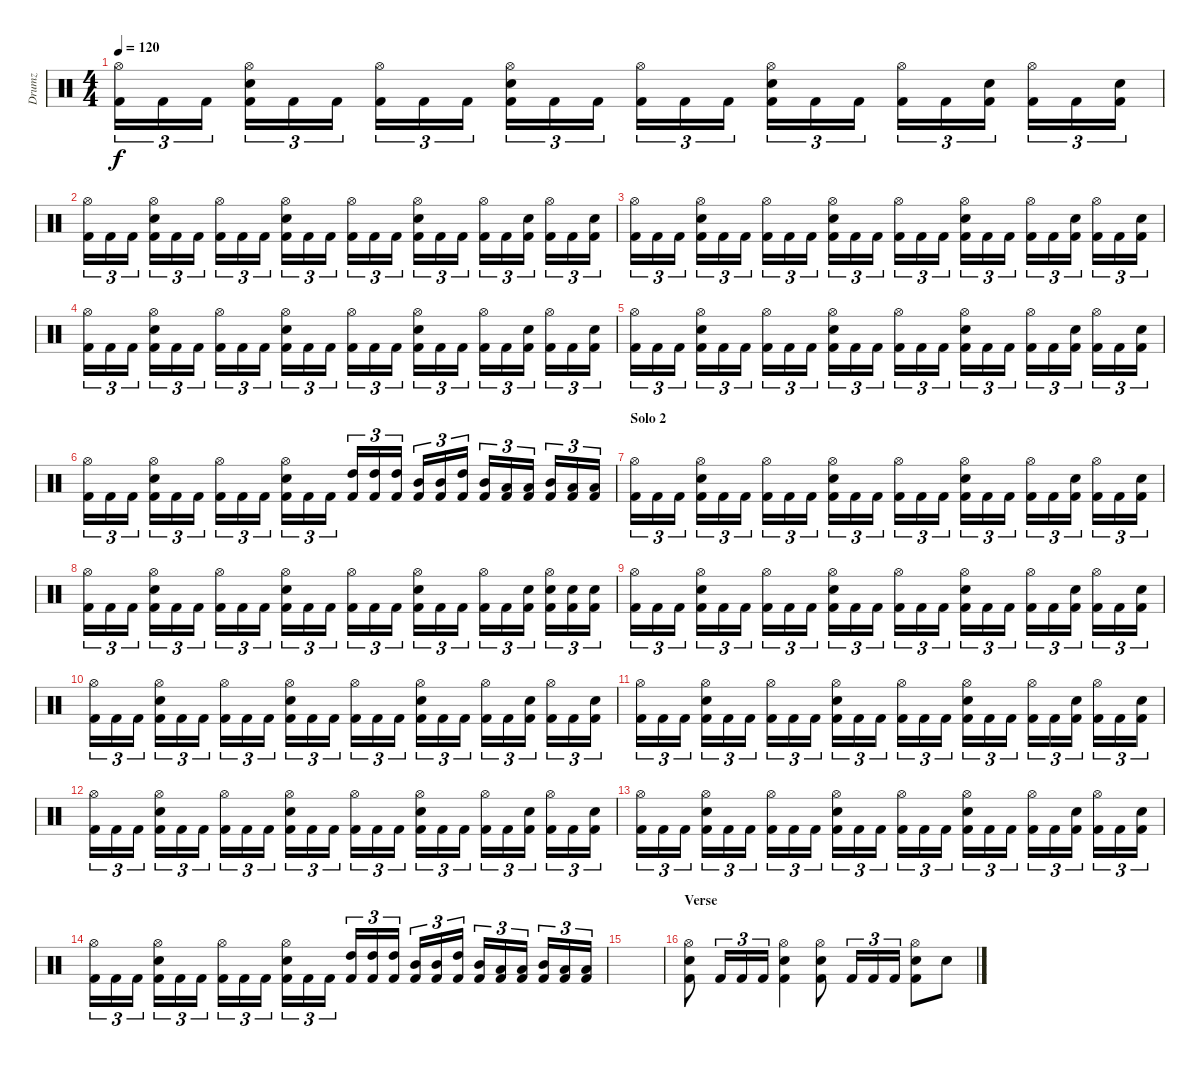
\track ("Drumz" "Drumz") {instrument percussion}
\staff {score}
\articulation defaults
\ts (4 4)
\tempo 120
\clef neutral
\ks c
("Hi-Hat (open)" "Kick (hit) 2").16{tu (3 2) dy f} "Kick (hit) 2".16{tu (3 2)} "Kick (hit) 2".16{tu (3 2)} ("Hi-Hat (open)" "Snare (hit) 2" "Kick (hit) 2").16{tu (3 2)} "Kick (hit) 2".16{tu (3 2)} "Kick (hit) 2".16{tu (3 2)} ("Hi-Hat (open)" "Kick (hit) 2").16{tu (3 2)} "Kick (hit) 2".16{tu (3 2)} "Kick (hit) 2".16{tu (3 2)} ("Hi-Hat (open)" "Snare (hit) 2" "Kick (hit) 2").16{tu (3 2)} "Kick (hit) 2".16{tu (3 2)} "Kick (hit) 2".16{tu (3 2)} ("Hi-Hat (open)" "Kick (hit) 2").16{tu (3 2)} "Kick (hit) 2".16{tu (3 2)} "Kick (hit) 2".16{tu (3 2)} ("Hi-Hat (open)" "Snare (hit) 2" "Kick (hit) 2").16{tu (3 2)} "Kick (hit) 2".16{tu (3 2)} "Kick (hit) 2".16{tu (3 2)} ("Hi-Hat (open)" "Kick (hit) 2").16{tu (3 2)} "Kick (hit) 2".16{tu (3 2)} ("Snare (hit) 2" "Kick (hit) 2").16{tu (3 2)} ("Hi-Hat (open)" "Kick (hit) 2").16{tu (3 2)} "Kick (hit) 2".16{tu (3 2)} ("Snare (hit) 2" "Kick (hit) 2").16{tu (3 2)} |
("Hi-Hat (open)" "Kick (hit) 2").16{tu (3 2)} "Kick (hit) 2".16{tu (3 2)} "Kick (hit) 2".16{tu (3 2)} ("Hi-Hat (open)" "Snare (hit) 2" "Kick (hit) 2").16{tu (3 2)} "Kick (hit) 2".16{tu (3 2)} "Kick (hit) 2".16{tu (3 2)} ("Hi-Hat (open)" "Kick (hit) 2").16{tu (3 2)} "Kick (hit) 2".16{tu (3 2)} "Kick (hit) 2".16{tu (3 2)} ("Hi-Hat (open)" "Snare (hit) 2" "Kick (hit) 2").16{tu (3 2)} "Kick (hit) 2".16{tu (3 2)} "Kick (hit) 2".16{tu (3 2)} ("Hi-Hat (open)" "Kick (hit) 2").16{tu (3 2)} "Kick (hit) 2".16{tu (3 2)} "Kick (hit) 2".16{tu (3 2)} ("Hi-Hat (open)" "Snare (hit) 2" "Kick (hit) 2").16{tu (3 2)} "Kick (hit) 2".16{tu (3 2)} "Kick (hit) 2".16{tu (3 2)} ("Hi-Hat (open)" "Kick (hit) 2").16{tu (3 2)} "Kick (hit) 2".16{tu (3 2)} ("Snare (hit) 2" "Kick (hit) 2").16{tu (3 2)} ("Hi-Hat (open)" "Kick (hit) 2").16{tu (3 2)} "Kick (hit) 2".16{tu (3 2)} ("Snare (hit) 2" "Kick (hit) 2").16{tu (3 2)} |
("Hi-Hat (open)" "Kick (hit) 2").16{tu (3 2)} "Kick (hit) 2".16{tu (3 2)} "Kick (hit) 2".16{tu (3 2)} ("Hi-Hat (open)" "Snare (hit) 2" "Kick (hit) 2").16{tu (3 2)} "Kick (hit) 2".16{tu (3 2)} "Kick (hit) 2".16{tu (3 2)} ("Hi-Hat (open)" "Kick (hit) 2").16{tu (3 2)} "Kick (hit) 2".16{tu (3 2)} "Kick (hit) 2".16{tu (3 2)} ("Hi-Hat (open)" "Snare (hit) 2" "Kick (hit) 2").16{tu (3 2)} "Kick (hit) 2".16{tu (3 2)} "Kick (hit) 2".16{tu (3 2)} ("Hi-Hat (open)" "Kick (hit) 2").16{tu (3 2)} "Kick (hit) 2".16{tu (3 2)} "Kick (hit) 2".16{tu (3 2)} ("Hi-Hat (open)" "Snare (hit) 2" "Kick (hit) 2").16{tu (3 2)} "Kick (hit) 2".16{tu (3 2)} "Kick (hit) 2".16{tu (3 2)} ("Hi-Hat (open)" "Kick (hit) 2").16{tu (3 2)} "Kick (hit) 2".16{tu (3 2)} ("Snare (hit) 2" "Kick (hit) 2").16{tu (3 2)} ("Hi-Hat (open)" "Kick (hit) 2").16{tu (3 2)} "Kick (hit) 2".16{tu (3 2)} ("Snare (hit) 2" "Kick (hit) 2").16{tu (3 2)} |
("Hi-Hat (open)" "Kick (hit) 2").16{tu (3 2)} "Kick (hit) 2".16{tu (3 2)} "Kick (hit) 2".16{tu (3 2)} ("Hi-Hat (open)" "Snare (hit) 2" "Kick (hit) 2").16{tu (3 2)} "Kick (hit) 2".16{tu (3 2)} "Kick (hit) 2".16{tu (3 2)} ("Hi-Hat (open)" "Kick (hit) 2").16{tu (3 2)} "Kick (hit) 2".16{tu (3 2)} "Kick (hit) 2".16{tu (3 2)} ("Hi-Hat (open)" "Snare (hit) 2" "Kick (hit) 2").16{tu (3 2)} "Kick (hit) 2".16{tu (3 2)} "Kick (hit) 2".16{tu (3 2)} ("Hi-Hat (open)" "Kick (hit) 2").16{tu (3 2)} "Kick (hit) 2".16{tu (3 2)} "Kick (hit) 2".16{tu (3 2)} ("Hi-Hat (open)" "Snare (hit) 2" "Kick (hit) 2").16{tu (3 2)} "Kick (hit) 2".16{tu (3 2)} "Kick (hit) 2".16{tu (3 2)} ("Hi-Hat (open)" "Kick (hit) 2").16{tu (3 2)} "Kick (hit) 2".16{tu (3 2)} ("Snare (hit) 2" "Kick (hit) 2").16{tu (3 2)} ("Hi-Hat (open)" "Kick (hit) 2").16{tu (3 2)} "Kick (hit) 2".16{tu (3 2)} ("Snare (hit) 2" "Kick (hit) 2").16{tu (3 2)} |
("Hi-Hat (open)" "Kick (hit) 2").16{tu (3 2)} "Kick (hit) 2".16{tu (3 2)} "Kick (hit) 2".16{tu (3 2)} ("Hi-Hat (open)" "Snare (hit) 2" "Kick (hit) 2").16{tu (3 2)} "Kick (hit) 2".16{tu (3 2)} "Kick (hit) 2".16{tu (3 2)} ("Hi-Hat (open)" "Kick (hit) 2").16{tu (3 2)} "Kick (hit) 2".16{tu (3 2)} "Kick (hit) 2".16{tu (3 2)} ("Hi-Hat (open)" "Snare (hit) 2" "Kick (hit) 2").16{tu (3 2)} "Kick (hit) 2".16{tu (3 2)} "Kick (hit) 2".16{tu (3 2)} ("Hi-Hat (open)" "Kick (hit) 2").16{tu (3 2)} "Kick (hit) 2".16{tu (3 2)} "Kick (hit) 2".16{tu (3 2)} ("Hi-Hat (open)" "Snare (hit) 2" "Kick (hit) 2").16{tu (3 2)} "Kick (hit) 2".16{tu (3 2)} "Kick (hit) 2".16{tu (3 2)} ("Hi-Hat (open)" "Kick (hit) 2").16{tu (3 2)} "Kick (hit) 2".16{tu (3 2)} ("Snare (hit) 2" "Kick (hit) 2").16{tu (3 2)} ("Hi-Hat (open)" "Kick (hit) 2").16{tu (3 2)} "Kick (hit) 2".16{tu (3 2)} ("Snare (hit) 2" "Kick (hit) 2").16{tu (3 2)} |
("Hi-Hat (open)" "Kick (hit) 2").16{tu (3 2)} "Kick (hit) 2".16{tu (3 2)} "Kick (hit) 2".16{tu (3 2)} ("Hi-Hat (open)" "Snare (hit) 2" "Kick (hit) 2").16{tu (3 2)} "Kick (hit) 2".16{tu (3 2)} "Kick (hit) 2".16{tu (3 2)} ("Hi-Hat (open)" "Kick (hit) 2").16{tu (3 2)} "Kick (hit) 2".16{tu (3 2)} "Kick (hit) 2".16{tu (3 2)} ("Hi-Hat (open)" "Snare (hit) 2" "Kick (hit) 2").16{tu (3 2)} "Kick (hit) 2".16{tu (3 2)} "Kick (hit) 2".16{tu (3 2)} ("High Tom (hit)" "Kick (hit) 2").16{tu (3 2)} ("High Tom (hit)" "Kick (hit) 2").16{tu (3 2)} ("High Tom (hit)" "Kick (hit) 2").16{tu (3 2)} ("Mid Tom (hit)" "Kick (hit) 2").16{tu (3 2)} ("Mid Tom (hit)" "Kick (hit) 2").16{tu (3 2)} ("High Tom (hit)" "Kick (hit) 2").16{tu (3 2)} ("Mid Tom (hit)" "Kick (hit) 2").16{tu (3 2)} ("Low Tom (hit)" "Kick (hit) 2").16{tu (3 2)} ("Low Tom (hit)" "Kick (hit) 2").16{tu (3 2)} ("Mid Tom (hit)" "Kick (hit) 2").16{tu (3 2)} ("Low Tom (hit)" "Kick (hit) 2").16{tu (3 2)} ("Low Tom (hit)" "Kick (hit) 2").16{tu (3 2)} |
\section ("" "Solo 2")
("Hi-Hat (open)" "Kick (hit) 2").16{tu (3 2)} "Kick (hit) 2".16{tu (3 2)} "Kick (hit) 2".16{tu (3 2)} ("Hi-Hat (open)" "Snare (hit) 2" "Kick (hit) 2").16{tu (3 2)} "Kick (hit) 2".16{tu (3 2)} "Kick (hit) 2".16{tu (3 2)} ("Hi-Hat (open)" "Kick (hit) 2").16{tu (3 2)} "Kick (hit) 2".16{tu (3 2)} "Kick (hit) 2".16{tu (3 2)} ("Hi-Hat (open)" "Snare (hit) 2" "Kick (hit) 2").16{tu (3 2)} "Kick (hit) 2".16{tu (3 2)} "Kick (hit) 2".16{tu (3 2)} ("Hi-Hat (open)" "Kick (hit) 2").16{tu (3 2)} "Kick (hit) 2".16{tu (3 2)} "Kick (hit) 2".16{tu (3 2)} ("Hi-Hat (open)" "Snare (hit) 2" "Kick (hit) 2").16{tu (3 2)} "Kick (hit) 2".16{tu (3 2)} "Kick (hit) 2".16{tu (3 2)} ("Hi-Hat (open)" "Kick (hit) 2").16{tu (3 2)} "Kick (hit) 2".16{tu (3 2)} ("Snare (hit) 2" "Kick (hit) 2").16{tu (3 2)} ("Hi-Hat (open)" "Kick (hit) 2").16{tu (3 2)} "Kick (hit) 2".16{tu (3 2)} ("Snare (hit) 2" "Kick (hit) 2").16{tu (3 2)} |
("Hi-Hat (open)" "Kick (hit) 2").16{tu (3 2)} "Kick (hit) 2".16{tu (3 2)} "Kick (hit) 2".16{tu (3 2)} ("Hi-Hat (open)" "Snare (hit) 2" "Kick (hit) 2").16{tu (3 2)} "Kick (hit) 2".16{tu (3 2)} "Kick (hit) 2".16{tu (3 2)} ("Hi-Hat (open)" "Kick (hit) 2").16{tu (3 2)} "Kick (hit) 2".16{tu (3 2)} "Kick (hit) 2".16{tu (3 2)} ("Hi-Hat (open)" "Snare (hit) 2" "Kick (hit) 2").16{tu (3 2)} "Kick (hit) 2".16{tu (3 2)} "Kick (hit) 2".16{tu (3 2)} ("Hi-Hat (open)" "Kick (hit) 2").16{tu (3 2)} "Kick (hit) 2".16{tu (3 2)} "Kick (hit) 2".16{tu (3 2)} ("Hi-Hat (open)" "Snare (hit) 2" "Kick (hit) 2").16{tu (3 2)} "Kick (hit) 2".16{tu (3 2)} "Kick (hit) 2".16{tu (3 2)} ("Hi-Hat (open)" "Kick (hit) 2").16{tu (3 2)} "Kick (hit) 2".16{tu (3 2)} ("Snare (hit) 2" "Kick (hit) 2").16{tu (3 2)} ("Hi-Hat (open)" "Snare (hit) 2" "Kick (hit) 2").16{tu (3 2)} ("Snare (hit) 2" "Kick (hit) 2").16{tu (3 2)} ("Snare (hit) 2" "Kick (hit) 2").16{tu (3 2)} |
("Hi-Hat (open)" "Kick (hit) 2").16{tu (3 2)} "Kick (hit) 2".16{tu (3 2)} "Kick (hit) 2".16{tu (3 2)} ("Hi-Hat (open)" "Snare (hit) 2" "Kick (hit) 2").16{tu (3 2)} "Kick (hit) 2".16{tu (3 2)} "Kick (hit) 2".16{tu (3 2)} ("Hi-Hat (open)" "Kick (hit) 2").16{tu (3 2)} "Kick (hit) 2".16{tu (3 2)} "Kick (hit) 2".16{tu (3 2)} ("Hi-Hat (open)" "Snare (hit) 2" "Kick (hit) 2").16{tu (3 2)} "Kick (hit) 2".16{tu (3 2)} "Kick (hit) 2".16{tu (3 2)} ("Hi-Hat (open)" "Kick (hit) 2").16{tu (3 2)} "Kick (hit) 2".16{tu (3 2)} "Kick (hit) 2".16{tu (3 2)} ("Hi-Hat (open)" "Snare (hit) 2" "Kick (hit) 2").16{tu (3 2)} "Kick (hit) 2".16{tu (3 2)} "Kick (hit) 2".16{tu (3 2)} ("Hi-Hat (open)" "Kick (hit) 2").16{tu (3 2)} "Kick (hit) 2".16{tu (3 2)} ("Snare (hit) 2" "Kick (hit) 2").16{tu (3 2)} ("Hi-Hat (open)" "Kick (hit) 2").16{tu (3 2)} "Kick (hit) 2".16{tu (3 2)} ("Snare (hit) 2" "Kick (hit) 2").16{tu (3 2)} |
("Hi-Hat (open)" "Kick (hit) 2").16{tu (3 2)} "Kick (hit) 2".16{tu (3 2)} "Kick (hit) 2".16{tu (3 2)} ("Hi-Hat (open)" "Snare (hit) 2" "Kick (hit) 2").16{tu (3 2)} "Kick (hit) 2".16{tu (3 2)} "Kick (hit) 2".16{tu (3 2)} ("Hi-Hat (open)" "Kick (hit) 2").16{tu (3 2)} "Kick (hit) 2".16{tu (3 2)} "Kick (hit) 2".16{tu (3 2)} ("Hi-Hat (open)" "Snare (hit) 2" "Kick (hit) 2").16{tu (3 2)} "Kick (hit) 2".16{tu (3 2)} "Kick (hit) 2".16{tu (3 2)} ("Hi-Hat (open)" "Kick (hit) 2").16{tu (3 2)} "Kick (hit) 2".16{tu (3 2)} "Kick (hit) 2".16{tu (3 2)} ("Hi-Hat (open)" "Snare (hit) 2" "Kick (hit) 2").16{tu (3 2)} "Kick (hit) 2".16{tu (3 2)} "Kick (hit) 2".16{tu (3 2)} ("Hi-Hat (open)" "Kick (hit) 2").16{tu (3 2)} "Kick (hit) 2".16{tu (3 2)} ("Snare (hit) 2" "Kick (hit) 2").16{tu (3 2)} ("Hi-Hat (open)" "Kick (hit) 2").16{tu (3 2)} "Kick (hit) 2".16{tu (3 2)} ("Snare (hit) 2" "Kick (hit) 2").16{tu (3 2)} |
("Hi-Hat (open)" "Kick (hit) 2").16{tu (3 2)} "Kick (hit) 2".16{tu (3 2)} "Kick (hit) 2".16{tu (3 2)} ("Hi-Hat (open)" "Snare (hit) 2" "Kick (hit) 2").16{tu (3 2)} "Kick (hit) 2".16{tu (3 2)} "Kick (hit) 2".16{tu (3 2)} ("Hi-Hat (open)" "Kick (hit) 2").16{tu (3 2)} "Kick (hit) 2".16{tu (3 2)} "Kick (hit) 2".16{tu (3 2)} ("Hi-Hat (open)" "Snare (hit) 2" "Kick (hit) 2").16{tu (3 2)} "Kick (hit) 2".16{tu (3 2)} "Kick (hit) 2".16{tu (3 2)} ("Hi-Hat (open)" "Kick (hit) 2").16{tu (3 2)} "Kick (hit) 2".16{tu (3 2)} "Kick (hit) 2".16{tu (3 2)} ("Hi-Hat (open)" "Snare (hit) 2" "Kick (hit) 2").16{tu (3 2)} "Kick (hit) 2".16{tu (3 2)} "Kick (hit) 2".16{tu (3 2)} ("Hi-Hat (open)" "Kick (hit) 2").16{tu (3 2)} "Kick (hit) 2".16{tu (3 2)} ("Snare (hit) 2" "Kick (hit) 2").16{tu (3 2)} ("Hi-Hat (open)" "Kick (hit) 2").16{tu (3 2)} "Kick (hit) 2".16{tu (3 2)} ("Snare (hit) 2" "Kick (hit) 2").16{tu (3 2)} |
("Hi-Hat (open)" "Kick (hit) 2").16{tu (3 2)} "Kick (hit) 2".16{tu (3 2)} "Kick (hit) 2".16{tu (3 2)} ("Hi-Hat (open)" "Snare (hit) 2" "Kick (hit) 2").16{tu (3 2)} "Kick (hit) 2".16{tu (3 2)} "Kick (hit) 2".16{tu (3 2)} ("Hi-Hat (open)" "Kick (hit) 2").16{tu (3 2)} "Kick (hit) 2".16{tu (3 2)} "Kick (hit) 2".16{tu (3 2)} ("Hi-Hat (open)" "Snare (hit) 2" "Kick (hit) 2").16{tu (3 2)} "Kick (hit) 2".16{tu (3 2)} "Kick (hit) 2".16{tu (3 2)} ("Hi-Hat (open)" "Kick (hit) 2").16{tu (3 2)} "Kick (hit) 2".16{tu (3 2)} "Kick (hit) 2".16{tu (3 2)} ("Hi-Hat (open)" "Snare (hit) 2" "Kick (hit) 2").16{tu (3 2)} "Kick (hit) 2".16{tu (3 2)} "Kick (hit) 2".16{tu (3 2)} ("Hi-Hat (open)" "Kick (hit) 2").16{tu (3 2)} "Kick (hit) 2".16{tu (3 2)} ("Snare (hit) 2" "Kick (hit) 2").16{tu (3 2)} ("Hi-Hat (open)" "Kick (hit) 2").16{tu (3 2)} "Kick (hit) 2".16{tu (3 2)} ("Snare (hit) 2" "Kick (hit) 2").16{tu (3 2)} |
("Hi-Hat (open)" "Kick (hit) 2").16{tu (3 2)} "Kick (hit) 2".16{tu (3 2)} "Kick (hit) 2".16{tu (3 2)} ("Hi-Hat (open)" "Snare (hit) 2" "Kick (hit) 2").16{tu (3 2)} "Kick (hit) 2".16{tu (3 2)} "Kick (hit) 2".16{tu (3 2)} ("Hi-Hat (open)" "Kick (hit) 2").16{tu (3 2)} "Kick (hit) 2".16{tu (3 2)} "Kick (hit) 2".16{tu (3 2)} ("Hi-Hat (open)" "Snare (hit) 2" "Kick (hit) 2").16{tu (3 2)} "Kick (hit) 2".16{tu (3 2)} "Kick (hit) 2".16{tu (3 2)} ("Hi-Hat (open)" "Kick (hit) 2").16{tu (3 2)} "Kick (hit) 2".16{tu (3 2)} "Kick (hit) 2".16{tu (3 2)} ("Hi-Hat (open)" "Snare (hit) 2" "Kick (hit) 2").16{tu (3 2)} "Kick (hit) 2".16{tu (3 2)} "Kick (hit) 2".16{tu (3 2)} ("Hi-Hat (open)" "Kick (hit) 2").16{tu (3 2)} "Kick (hit) 2".16{tu (3 2)} ("Snare (hit) 2" "Kick (hit) 2").16{tu (3 2)} ("Hi-Hat (open)" "Kick (hit) 2").16{tu (3 2)} "Kick (hit) 2".16{tu (3 2)} ("Snare (hit) 2" "Kick (hit) 2").16{tu (3 2)} |
("Hi-Hat (open)" "Kick (hit) 2").16{tu (3 2)} "Kick (hit) 2".16{tu (3 2)} "Kick (hit) 2".16{tu (3 2)} ("Hi-Hat (open)" "Snare (hit) 2" "Kick (hit) 2").16{tu (3 2)} "Kick (hit) 2".16{tu (3 2)} "Kick (hit) 2".16{tu (3 2)} ("Hi-Hat (open)" "Kick (hit) 2").16{tu (3 2)} "Kick (hit) 2".16{tu (3 2)} "Kick (hit) 2".16{tu (3 2)} ("Hi-Hat (open)" "Snare (hit) 2" "Kick (hit) 2").16{tu (3 2)} "Kick (hit) 2".16{tu (3 2)} "Kick (hit) 2".16{tu (3 2)} ("High Tom (hit)" "Kick (hit) 2").16{tu (3 2)} ("High Tom (hit)" "Kick (hit) 2").16{tu (3 2)} ("High Tom (hit)" "Kick (hit) 2").16{tu (3 2)} ("Mid Tom (hit)" "Kick (hit) 2").16{tu (3 2)} ("Mid Tom (hit)" "Kick (hit) 2").16{tu (3 2)} ("High Tom (hit)" "Kick (hit) 2").16{tu (3 2)} ("Mid Tom (hit)" "Kick (hit) 2").16{tu (3 2)} ("Low Tom (hit)" "Kick (hit) 2").16{tu (3 2)} ("Low Tom (hit)" "Kick (hit) 2").16{tu (3 2)} ("Mid Tom (hit)" "Kick (hit) 2").16{tu (3 2)} ("Low Tom (hit)" "Kick (hit) 2").16{tu (3 2)} ("Low Tom (hit)" "Kick (hit) 2").16{tu (3 2)} |
|
\section ("" "Verse")
("Hi-Hat (open)" "Snare (hit) 2" "Kick (hit) 2").8 "Kick (hit) 2".16{tu (3 2)} "Kick (hit) 2".16{tu (3 2)} "Kick (hit) 2".16{tu (3 2)} ("Hi-Hat (open)" "Snare (hit) 2" "Kick (hit) 2").4 ("Hi-Hat (open)" "Snare (hit) 2" "Kick (hit) 2").8 "Kick (hit) 2".16{tu (3 2)} "Kick (hit) 2".16{tu (3 2)} "Kick (hit) 2".16{tu (3 2)} ("Hi-Hat (open)" "Snare (hit) 2" "Kick (hit) 2").8 "Snare (hit) 2".8
